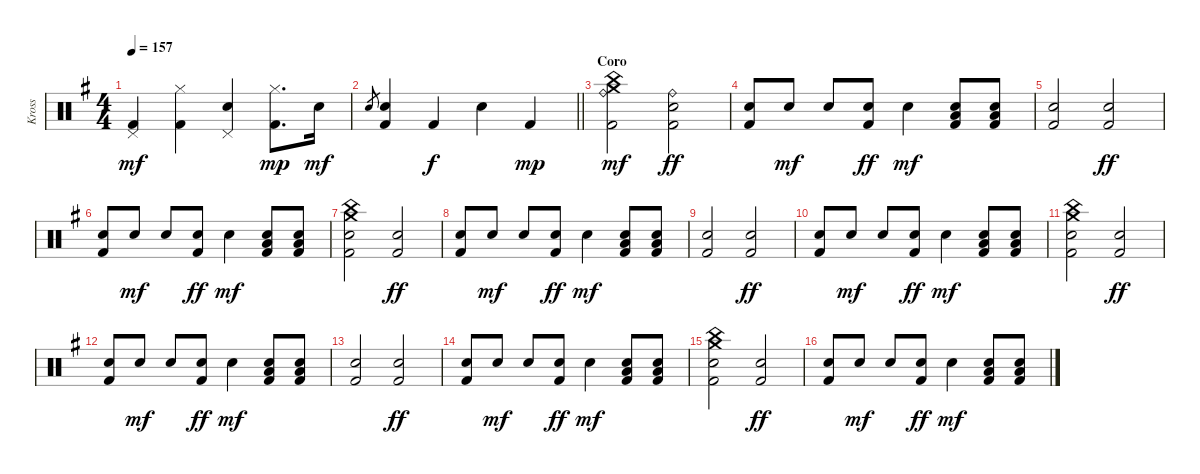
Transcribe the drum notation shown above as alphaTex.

\track ("Kross" "Kross") {instrument percussion}
\staff {score}
\articulation defaults
\ts (4 4)
\tempo 157
\clef neutral
\ks g
("Pedal Hi-Hat (hit)" "Kick (hit) 2").4{dy mf} ("Hi-Hat (closed)" "Kick (hit) 2").4 ("Pedal Hi-Hat (hit)" "Snare (hit) 2").4 ("Hi-Hat (closed)" "Kick (hit) 2").8{d dy mp} "Electric Snare (hit)".16{dy mf} |
\barLineRight lightlight "Electric Snare (hit)".8{gr}
("Snare (hit) 2" "Kick (hit) 2").4 "Kick (hit) 2".4{dy f} "Snare (hit) 2".4 "Kick (hit) 2".4{dy mp} |
\section ("" "Coro")
("Ride (bell)" "Crash medium (hit)" "China (hit)" "Kick (hit) 2").2{dy mf volume 16} ("Ride (bell)" "Electric Snare (hit)" "Kick (hit) 2").2{dy ff} |
("Electric Snare (hit)" "Kick (hit) 2").8 "Electric Snare (hit)".8{dy mf} "Electric Snare (hit)".8 ("Electric Snare (hit)" "Kick (hit) 2").8{dy ff} "Electric Snare (hit)".4{dy mf} ("Electric Snare (hit)" "Low Floor Tom (hit)" "Kick (hit) 2").8 ("Electric Snare (hit)" "Low Floor Tom (hit)" "Kick (hit) 2").8 |
("Electric Snare (hit)" "Kick (hit) 2").2 ("Electric Snare (hit)" "Kick (hit) 2").2{dy ff} |
("Electric Snare (hit)" "Kick (hit) 2").8 "Electric Snare (hit)".8{dy mf} "Electric Snare (hit)".8 ("Electric Snare (hit)" "Kick (hit) 2").8{dy ff} "Electric Snare (hit)".4{dy mf} ("Electric Snare (hit)" "Low Floor Tom (hit)" "Kick (hit) 2").8 ("Electric Snare (hit)" "Low Floor Tom (hit)" "Kick (hit) 2").8 |
("Crash medium (hit)" "Electric Snare (hit)" "China (hit)" "Kick (hit) 2").2 ("Electric Snare (hit)" "Kick (hit) 2").2{dy ff} |
("Electric Snare (hit)" "Kick (hit) 2").8 "Electric Snare (hit)".8{dy mf} "Electric Snare (hit)".8 ("Electric Snare (hit)" "Kick (hit) 2").8{dy ff} "Electric Snare (hit)".4{dy mf} ("Electric Snare (hit)" "Low Floor Tom (hit)" "Kick (hit) 2").8 ("Electric Snare (hit)" "Low Floor Tom (hit)" "Kick (hit) 2").8 |
("Electric Snare (hit)" "Kick (hit) 2").2 ("Electric Snare (hit)" "Kick (hit) 2").2{dy ff} |
("Electric Snare (hit)" "Kick (hit) 2").8 "Electric Snare (hit)".8{dy mf} "Electric Snare (hit)".8 ("Electric Snare (hit)" "Kick (hit) 2").8{dy ff} "Electric Snare (hit)".4{dy mf} ("Electric Snare (hit)" "Low Floor Tom (hit)" "Kick (hit) 2").8 ("Electric Snare (hit)" "Low Floor Tom (hit)" "Kick (hit) 2").8 |
("Crash medium (hit)" "Electric Snare (hit)" "China (hit)" "Kick (hit) 2").2 ("Electric Snare (hit)" "Kick (hit) 2").2{dy ff} |
("Electric Snare (hit)" "Kick (hit) 2").8 "Electric Snare (hit)".8{dy mf} "Electric Snare (hit)".8 ("Electric Snare (hit)" "Kick (hit) 2").8{dy ff} "Electric Snare (hit)".4{dy mf} ("Electric Snare (hit)" "Low Floor Tom (hit)" "Kick (hit) 2").8 ("Electric Snare (hit)" "Low Floor Tom (hit)" "Kick (hit) 2").8 |
("Electric Snare (hit)" "Kick (hit) 2").2 ("Electric Snare (hit)" "Kick (hit) 2").2{dy ff} |
("Electric Snare (hit)" "Kick (hit) 2").8 "Electric Snare (hit)".8{dy mf} "Electric Snare (hit)".8 ("Electric Snare (hit)" "Kick (hit) 2").8{dy ff} "Electric Snare (hit)".4{dy mf} ("Electric Snare (hit)" "Low Floor Tom (hit)" "Kick (hit) 2").8 ("Electric Snare (hit)" "Low Floor Tom (hit)" "Kick (hit) 2").8 |
("Crash medium (hit)" "Electric Snare (hit)" "China (hit)" "Kick (hit) 2").2 ("Electric Snare (hit)" "Kick (hit) 2").2{dy ff} |
("Electric Snare (hit)" "Kick (hit) 2").8 "Electric Snare (hit)".8{dy mf} "Electric Snare (hit)".8 ("Electric Snare (hit)" "Kick (hit) 2").8{dy ff} "Electric Snare (hit)".4{dy mf} ("Electric Snare (hit)" "Low Floor Tom (hit)" "Kick (hit) 2").8 ("Electric Snare (hit)" "Low Floor Tom (hit)" "Kick (hit) 2").8
